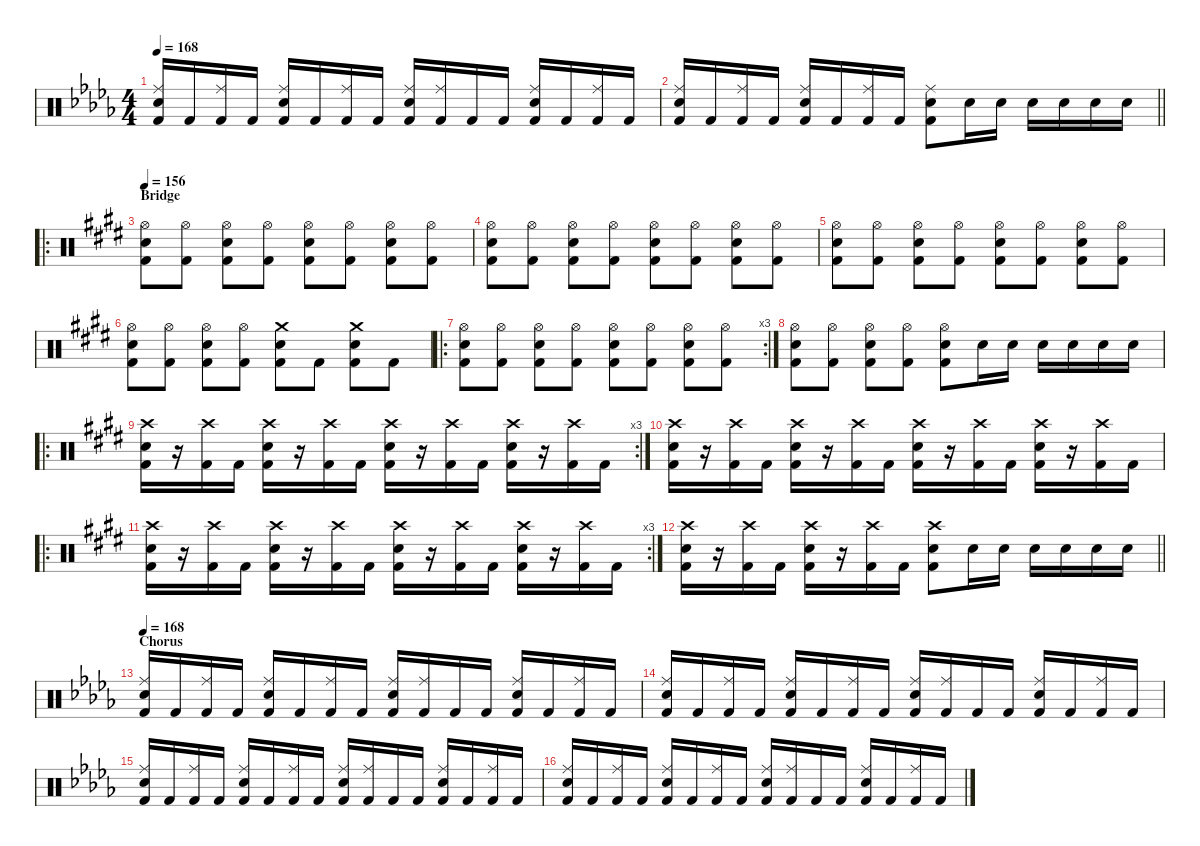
\defaultSystemsLayout 4
\hideDynamics
\bracketExtendMode nobrackets
\singleTrackTrackNamePolicy hidden
\multiTrackTrackNamePolicy hidden
\firstSystemTrackNameMode fullname
\firstSystemTrackNameOrientation horizontal
\otherSystemsTrackNameOrientation horizontal
\track ("Percussion" "drm.") {instrument percussion}
\staff {score}
\articulation defaults
\ts (4 4)
\tempo 168
\clef neutral
\ks db
("Ride (middle)"{acc forcenatural} "Snare (hit) 2"{acc forcenatural} "Kick (hit) 2"{acc forcenatural}).16{dy f beam Up} "Kick (hit) 2"{acc forcenatural}.16{beam Up} ("Ride (middle)"{acc forcenatural} "Kick (hit) 2"{acc forcenatural}).16{beam Up} "Kick (hit) 2"{acc forcenatural}.16{beam Up} ("Ride (middle)"{acc forcenatural} "Snare (hit) 2"{acc forcenatural} "Kick (hit) 2"{acc forcenatural}).16{beam Up} "Kick (hit) 2"{acc forcenatural}.16{beam Up} ("Ride (middle)"{acc forcenatural} "Kick (hit) 2"{acc forcenatural}).16{beam Up} "Kick (hit) 2"{acc forcenatural}.16{beam Up} ("Ride (middle)"{acc forcenatural} "Snare (hit) 2"{acc forcenatural} "Kick (hit) 2"{acc forcenatural}).16{beam Up} ("Ride (middle)"{acc forcenatural} "Kick (hit) 2"{acc forcenatural}).16{beam Up} "Kick (hit) 2"{acc forcenatural}.16{beam Up} "Kick (hit) 2"{acc forcenatural}.16{beam Up} ("Ride (middle)"{acc forcenatural} "Snare (hit) 2"{acc forcenatural} "Kick (hit) 2"{acc forcenatural}).16{beam Up} "Kick (hit) 2"{acc forcenatural}.16{beam Up} ("Ride (middle)"{acc forcenatural} "Kick (hit) 2"{acc forcenatural}).16{beam Up} "Kick (hit) 2"{acc forcenatural}.16{beam Up} |
\barLineRight lightlight
("Ride (middle)"{acc forcenatural} "Snare (hit) 2"{acc forcenatural} "Kick (hit) 2"{acc forcenatural}).16{beam Up} "Kick (hit) 2"{acc forcenatural}.16{beam Up} ("Ride (middle)"{acc forcenatural} "Kick (hit) 2"{acc forcenatural}).16{beam Up} "Kick (hit) 2"{acc forcenatural}.16{beam Up} ("Ride (middle)"{acc forcenatural} "Snare (hit) 2"{acc forcenatural} "Kick (hit) 2"{acc forcenatural}).16{beam Up} "Kick (hit) 2"{acc forcenatural}.16{beam Up} ("Ride (middle)"{acc forcenatural} "Kick (hit) 2"{acc forcenatural}).16{beam Up} "Kick (hit) 2"{acc forcenatural}.16{beam Up} ("Ride (middle)"{acc forcenatural} "Snare (hit) 2"{acc forcenatural} "Kick (hit) 2"{acc forcenatural}).8{beam Down} "Snare (hit) 2"{acc forcenatural}.16{beam Down} "Snare (hit) 2"{acc forcenatural}.16{beam Down} "Snare (hit) 2"{acc forcenatural}.16{beam Down} "Snare (hit) 2"{acc forcenatural}.16{beam Down} "Snare (hit) 2"{acc forcenatural}.16{beam Down} "Snare (hit) 2"{acc forcenatural}.16{beam Down} |
\ro
\section ("" "Bridge")
\tempo 156
\ks c#minor
("Hi-Hat (open)"{acc forcenatural} "Snare (hit) 2"{acc forcenatural} "Kick (hit) 2"{acc forcenatural}).8{beam Down} ("Hi-Hat (open)"{acc forcenatural} "Kick (hit) 2"{acc forcenatural}).8{beam Down} ("Hi-Hat (open)"{acc forcenatural} "Snare (hit) 2"{acc forcenatural} "Kick (hit) 2"{acc forcenatural}).8{beam Down} ("Hi-Hat (open)"{acc forcenatural} "Kick (hit) 2"{acc forcenatural}).8{beam Down} ("Hi-Hat (open)"{acc forcenatural} "Snare (hit) 2"{acc forcenatural} "Kick (hit) 2"{acc forcenatural}).8{beam Down} ("Hi-Hat (open)"{acc forcenatural} "Kick (hit) 2"{acc forcenatural}).8{beam Down} ("Hi-Hat (open)"{acc forcenatural} "Snare (hit) 2"{acc forcenatural} "Kick (hit) 2"{acc forcenatural}).8{beam Down} ("Hi-Hat (open)"{acc forcenatural} "Kick (hit) 2"{acc forcenatural}).8{beam Down} |
("Hi-Hat (open)"{acc forcenatural} "Snare (hit) 2"{acc forcenatural} "Kick (hit) 2"{acc forcenatural}).8{beam Down} ("Hi-Hat (open)"{acc forcenatural} "Kick (hit) 2"{acc forcenatural}).8{beam Down} ("Hi-Hat (open)"{acc forcenatural} "Snare (hit) 2"{acc forcenatural} "Kick (hit) 2"{acc forcenatural}).8{beam Down} ("Hi-Hat (open)"{acc forcenatural} "Kick (hit) 2"{acc forcenatural}).8{beam Down} ("Hi-Hat (open)"{acc forcenatural} "Snare (hit) 2"{acc forcenatural} "Kick (hit) 2"{acc forcenatural}).8{beam Down} ("Hi-Hat (open)"{acc forcenatural} "Kick (hit) 2"{acc forcenatural}).8{beam Down} ("Hi-Hat (open)"{acc forcenatural} "Snare (hit) 2"{acc forcenatural} "Kick (hit) 2"{acc forcenatural}).8{beam Down} ("Hi-Hat (open)"{acc forcenatural} "Kick (hit) 2"{acc forcenatural}).8{beam Down} |
("Hi-Hat (open)"{acc forcenatural} "Snare (hit) 2"{acc forcenatural} "Kick (hit) 2"{acc forcenatural}).8{beam Down} ("Hi-Hat (open)"{acc forcenatural} "Kick (hit) 2"{acc forcenatural}).8{beam Down} ("Hi-Hat (open)"{acc forcenatural} "Snare (hit) 2"{acc forcenatural} "Kick (hit) 2"{acc forcenatural}).8{beam Down} ("Hi-Hat (open)"{acc forcenatural} "Kick (hit) 2"{acc forcenatural}).8{beam Down} ("Hi-Hat (open)"{acc forcenatural} "Snare (hit) 2"{acc forcenatural} "Kick (hit) 2"{acc forcenatural}).8{beam Down} ("Hi-Hat (open)"{acc forcenatural} "Kick (hit) 2"{acc forcenatural}).8{beam Down} ("Hi-Hat (open)"{acc forcenatural} "Snare (hit) 2"{acc forcenatural} "Kick (hit) 2"{acc forcenatural}).8{beam Down} ("Hi-Hat (open)"{acc forcenatural} "Kick (hit) 2"{acc forcenatural}).8{beam Down} |
("Hi-Hat (open)"{acc forcenatural} "Snare (hit) 2"{acc forcenatural} "Kick (hit) 2"{acc forcenatural}).8{beam Down} ("Hi-Hat (open)"{acc forcenatural} "Kick (hit) 2"{acc forcenatural}).8{beam Down} ("Hi-Hat (open)"{acc forcenatural} "Snare (hit) 2"{acc forcenatural} "Kick (hit) 2"{acc forcenatural}).8{beam Down} ("Hi-Hat (open)"{acc forcenatural} "Kick (hit) 2"{acc forcenatural}).8{beam Down} ("Crash medium (hit)"{acc forcenatural} "Snare (hit) 2"{acc forcenatural} "Kick (hit) 2"{acc forcenatural}).8{beam Down} "Kick (hit) 2"{acc forcenatural}.8{beam Down} ("Crash medium (hit)"{acc forcenatural} "Snare (hit) 2"{acc forcenatural} "Kick (hit) 2"{acc forcenatural}).8{beam Down} "Kick (hit) 2"{acc forcenatural}.8{beam Down} |
\ro
\rc 3
("Hi-Hat (open)"{acc forcenatural} "Snare (hit) 2"{acc forcenatural} "Kick (hit) 2"{acc forcenatural}).8{beam Down} ("Hi-Hat (open)"{acc forcenatural} "Kick (hit) 2"{acc forcenatural}).8{beam Down} ("Hi-Hat (open)"{acc forcenatural} "Snare (hit) 2"{acc forcenatural} "Kick (hit) 2"{acc forcenatural}).8{beam Down} ("Hi-Hat (open)"{acc forcenatural} "Kick (hit) 2"{acc forcenatural}).8{beam Down} ("Hi-Hat (open)"{acc forcenatural} "Snare (hit) 2"{acc forcenatural} "Kick (hit) 2"{acc forcenatural}).8{beam Down} ("Hi-Hat (open)"{acc forcenatural} "Kick (hit) 2"{acc forcenatural}).8{beam Down} ("Hi-Hat (open)"{acc forcenatural} "Snare (hit) 2"{acc forcenatural} "Kick (hit) 2"{acc forcenatural}).8{beam Down} ("Hi-Hat (open)"{acc forcenatural} "Kick (hit) 2"{acc forcenatural}).8{beam Down} |
("Hi-Hat (open)"{acc forcenatural} "Snare (hit) 2"{acc forcenatural} "Kick (hit) 2"{acc forcenatural}).8{beam Down} ("Hi-Hat (open)"{acc forcenatural} "Kick (hit) 2"{acc forcenatural}).8{beam Down} ("Hi-Hat (open)"{acc forcenatural} "Snare (hit) 2"{acc forcenatural} "Kick (hit) 2"{acc forcenatural}).8{beam Down} ("Hi-Hat (open)"{acc forcenatural} "Kick (hit) 2"{acc forcenatural}).8{beam Down} ("Hi-Hat (open)"{acc forcenatural} "Snare (hit) 2"{acc forcenatural} "Kick (hit) 2"{acc forcenatural}).8{beam Down} "Snare (hit) 2"{acc forcenatural}.16{beam Down} "Snare (hit) 2"{acc forcenatural}.16{beam Down} "Snare (hit) 2"{acc forcenatural}.16{beam Down} "Snare (hit) 2"{acc forcenatural}.16{beam Down} "Snare (hit) 2"{acc forcenatural}.16{beam Down} "Snare (hit) 2"{acc forcenatural}.16{beam Down} |
\ro
\rc 3
("Crash high (hit)"{acc forcenatural} "Snare (hit) 2"{acc forcenatural} "Kick (hit) 2"{acc forcenatural}).16{beam Down} r.16{beam Down} ("Crash high (hit)"{acc forcenatural} "Kick (hit) 2"{acc forcenatural}).16{beam Down} "Kick (hit) 2"{acc forcenatural}.16{beam Down} ("Crash high (hit)"{acc forcenatural} "Snare (hit) 2"{acc forcenatural} "Kick (hit) 2"{acc forcenatural}).16{beam Down} r.16{beam Down} ("Crash high (hit)"{acc forcenatural} "Kick (hit) 2"{acc forcenatural}).16{beam Down} "Kick (hit) 2"{acc forcenatural}.16{beam Down} ("Crash high (hit)"{acc forcenatural} "Snare (hit) 2"{acc forcenatural} "Kick (hit) 2"{acc forcenatural}).16{beam Down} r.16{beam Down} ("Crash high (hit)"{acc forcenatural} "Kick (hit) 2"{acc forcenatural}).16{beam Down} "Kick (hit) 2"{acc forcenatural}.16{beam Down} ("Crash high (hit)"{acc forcenatural} "Snare (hit) 2"{acc forcenatural} "Kick (hit) 2"{acc forcenatural}).16{beam Down} r.16{beam Down} ("Crash high (hit)"{acc forcenatural} "Kick (hit) 2"{acc forcenatural}).16{beam Down} "Kick (hit) 2"{acc forcenatural}.16{beam Down} |
("Crash high (hit)"{acc forcenatural} "Snare (hit) 2"{acc forcenatural} "Kick (hit) 2"{acc forcenatural}).16{beam Down} r.16{beam Down} ("Crash high (hit)"{acc forcenatural} "Kick (hit) 2"{acc forcenatural}).16{beam Down} "Kick (hit) 2"{acc forcenatural}.16{beam Down} ("Crash high (hit)"{acc forcenatural} "Snare (hit) 2"{acc forcenatural} "Kick (hit) 2"{acc forcenatural}).16{beam Down} r.16{beam Down} ("Crash high (hit)"{acc forcenatural} "Kick (hit) 2"{acc forcenatural}).16{beam Down} "Kick (hit) 2"{acc forcenatural}.16{beam Down} ("Crash high (hit)"{acc forcenatural} "Snare (hit) 2"{acc forcenatural} "Kick (hit) 2"{acc forcenatural}).16{beam Down} r.16{beam Down} ("Crash high (hit)"{acc forcenatural} "Kick (hit) 2"{acc forcenatural}).16{beam Down} "Kick (hit) 2"{acc forcenatural}.16{beam Down} ("Crash high (hit)"{acc forcenatural} "Snare (hit) 2"{acc forcenatural} "Kick (hit) 2"{acc forcenatural}).16{beam Down} r.16{beam Down} ("Crash high (hit)"{acc forcenatural} "Kick (hit) 2"{acc forcenatural}).16{beam Down} "Kick (hit) 2"{acc forcenatural}.16{beam Down} |
\ro
\rc 3
("Crash high (hit)"{acc forcenatural} "Snare (hit) 2"{acc forcenatural} "Kick (hit) 2"{acc forcenatural}).16{beam Down} r.16{beam Down} ("Crash high (hit)"{acc forcenatural} "Kick (hit) 2"{acc forcenatural}).16{beam Down} "Kick (hit) 2"{acc forcenatural}.16{beam Down} ("Crash high (hit)"{acc forcenatural} "Snare (hit) 2"{acc forcenatural} "Kick (hit) 2"{acc forcenatural}).16{beam Down} r.16{beam Down} ("Crash high (hit)"{acc forcenatural} "Kick (hit) 2"{acc forcenatural}).16{beam Down} "Kick (hit) 2"{acc forcenatural}.16{beam Down} ("Crash high (hit)"{acc forcenatural} "Snare (hit) 2"{acc forcenatural} "Kick (hit) 2"{acc forcenatural}).16{beam Down} r.16{beam Down} ("Crash high (hit)"{acc forcenatural} "Kick (hit) 2"{acc forcenatural}).16{beam Down} "Kick (hit) 2"{acc forcenatural}.16{beam Down} ("Crash high (hit)"{acc forcenatural} "Snare (hit) 2"{acc forcenatural} "Kick (hit) 2"{acc forcenatural}).16{beam Down} r.16{beam Down} ("Crash high (hit)"{acc forcenatural} "Kick (hit) 2"{acc forcenatural}).16{beam Down} "Kick (hit) 2"{acc forcenatural}.16{beam Down} |
\barLineRight lightlight
("Crash high (hit)"{acc forcenatural} "Snare (hit) 2"{acc forcenatural} "Kick (hit) 2"{acc forcenatural}).16{beam Down} r.16{beam Down} ("Crash high (hit)"{acc forcenatural} "Kick (hit) 2"{acc forcenatural}).16{beam Down} "Kick (hit) 2"{acc forcenatural}.16{beam Down} ("Crash high (hit)"{acc forcenatural} "Snare (hit) 2"{acc forcenatural} "Kick (hit) 2"{acc forcenatural}).16{beam Down} r.16{beam Down} ("Crash high (hit)"{acc forcenatural} "Kick (hit) 2"{acc forcenatural}).16{beam Down} "Kick (hit) 2"{acc forcenatural}.16{beam Down} ("Crash high (hit)"{acc forcenatural} "Snare (hit) 2"{acc forcenatural} "Kick (hit) 2"{acc forcenatural}).8{beam Down} "Snare (hit) 2"{acc forcenatural}.16{beam Down} "Snare (hit) 2"{acc forcenatural}.16{beam Down} "Snare (hit) 2"{acc forcenatural}.16{beam Down} "Snare (hit) 2"{acc forcenatural}.16{beam Down} "Snare (hit) 2"{acc forcenatural}.16{beam Down} "Snare (hit) 2"{acc forcenatural}.16{beam Down} |
\section ("" "Chorus")
\tempo 168
\ks db
("Ride (middle)"{acc forcenatural} "Snare (hit) 2"{acc forcenatural} "Kick (hit) 2"{acc forcenatural}).16{beam Up} "Kick (hit) 2"{acc forcenatural}.16{beam Up} ("Ride (middle)"{acc forcenatural} "Kick (hit) 2"{acc forcenatural}).16{beam Up} "Kick (hit) 2"{acc forcenatural}.16{beam Up} ("Ride (middle)"{acc forcenatural} "Snare (hit) 2"{acc forcenatural} "Kick (hit) 2"{acc forcenatural}).16{beam Up} "Kick (hit) 2"{acc forcenatural}.16{beam Up} ("Ride (middle)"{acc forcenatural} "Kick (hit) 2"{acc forcenatural}).16{beam Up} "Kick (hit) 2"{acc forcenatural}.16{beam Up} ("Ride (middle)"{acc forcenatural} "Snare (hit) 2"{acc forcenatural} "Kick (hit) 2"{acc forcenatural}).16{beam Up} ("Ride (middle)"{acc forcenatural} "Kick (hit) 2"{acc forcenatural}).16{beam Up} "Kick (hit) 2"{acc forcenatural}.16{beam Up} "Kick (hit) 2"{acc forcenatural}.16{beam Up} ("Ride (middle)"{acc forcenatural} "Snare (hit) 2"{acc forcenatural} "Kick (hit) 2"{acc forcenatural}).16{beam Up} "Kick (hit) 2"{acc forcenatural}.16{beam Up} ("Ride (middle)"{acc forcenatural} "Kick (hit) 2"{acc forcenatural}).16{beam Up} "Kick (hit) 2"{acc forcenatural}.16{beam Up} |
("Ride (middle)"{acc forcenatural} "Snare (hit) 2"{acc forcenatural} "Kick (hit) 2"{acc forcenatural}).16{beam Up} "Kick (hit) 2"{acc forcenatural}.16{beam Up} ("Ride (middle)"{acc forcenatural} "Kick (hit) 2"{acc forcenatural}).16{beam Up} "Kick (hit) 2"{acc forcenatural}.16{beam Up} ("Ride (middle)"{acc forcenatural} "Snare (hit) 2"{acc forcenatural} "Kick (hit) 2"{acc forcenatural}).16{beam Up} "Kick (hit) 2"{acc forcenatural}.16{beam Up} ("Ride (middle)"{acc forcenatural} "Kick (hit) 2"{acc forcenatural}).16{beam Up} "Kick (hit) 2"{acc forcenatural}.16{beam Up} ("Ride (middle)"{acc forcenatural} "Snare (hit) 2"{acc forcenatural} "Kick (hit) 2"{acc forcenatural}).16{beam Up} ("Ride (middle)"{acc forcenatural} "Kick (hit) 2"{acc forcenatural}).16{beam Up} "Kick (hit) 2"{acc forcenatural}.16{beam Up} "Kick (hit) 2"{acc forcenatural}.16{beam Up} ("Ride (middle)"{acc forcenatural} "Snare (hit) 2"{acc forcenatural} "Kick (hit) 2"{acc forcenatural}).16{beam Up} "Kick (hit) 2"{acc forcenatural}.16{beam Up} ("Ride (middle)"{acc forcenatural} "Kick (hit) 2"{acc forcenatural}).16{beam Up} "Kick (hit) 2"{acc forcenatural}.16{beam Up} |
("Ride (middle)"{acc forcenatural} "Snare (hit) 2"{acc forcenatural} "Kick (hit) 2"{acc forcenatural}).16{beam Up} "Kick (hit) 2"{acc forcenatural}.16{beam Up} ("Ride (middle)"{acc forcenatural} "Kick (hit) 2"{acc forcenatural}).16{beam Up} "Kick (hit) 2"{acc forcenatural}.16{beam Up} ("Ride (middle)"{acc forcenatural} "Snare (hit) 2"{acc forcenatural} "Kick (hit) 2"{acc forcenatural}).16{beam Up} "Kick (hit) 2"{acc forcenatural}.16{beam Up} ("Ride (middle)"{acc forcenatural} "Kick (hit) 2"{acc forcenatural}).16{beam Up} "Kick (hit) 2"{acc forcenatural}.16{beam Up} ("Ride (middle)"{acc forcenatural} "Snare (hit) 2"{acc forcenatural} "Kick (hit) 2"{acc forcenatural}).16{beam Up} ("Ride (middle)"{acc forcenatural} "Kick (hit) 2"{acc forcenatural}).16{beam Up} "Kick (hit) 2"{acc forcenatural}.16{beam Up} "Kick (hit) 2"{acc forcenatural}.16{beam Up} ("Ride (middle)"{acc forcenatural} "Snare (hit) 2"{acc forcenatural} "Kick (hit) 2"{acc forcenatural}).16{beam Up} "Kick (hit) 2"{acc forcenatural}.16{beam Up} ("Ride (middle)"{acc forcenatural} "Kick (hit) 2"{acc forcenatural}).16{beam Up} "Kick (hit) 2"{acc forcenatural}.16{beam Up} |
("Ride (middle)"{acc forcenatural} "Snare (hit) 2"{acc forcenatural} "Kick (hit) 2"{acc forcenatural}).16{beam Up} "Kick (hit) 2"{acc forcenatural}.16{beam Up} ("Ride (middle)"{acc forcenatural} "Kick (hit) 2"{acc forcenatural}).16{beam Up} "Kick (hit) 2"{acc forcenatural}.16{beam Up} ("Ride (middle)"{acc forcenatural} "Snare (hit) 2"{acc forcenatural} "Kick (hit) 2"{acc forcenatural}).16{beam Up} "Kick (hit) 2"{acc forcenatural}.16{beam Up} ("Ride (middle)"{acc forcenatural} "Kick (hit) 2"{acc forcenatural}).16{beam Up} "Kick (hit) 2"{acc forcenatural}.16{beam Up} ("Ride (middle)"{acc forcenatural} "Snare (hit) 2"{acc forcenatural} "Kick (hit) 2"{acc forcenatural}).16{beam Up} ("Ride (middle)"{acc forcenatural} "Kick (hit) 2"{acc forcenatural}).16{beam Up} "Kick (hit) 2"{acc forcenatural}.16{beam Up} "Kick (hit) 2"{acc forcenatural}.16{beam Up} ("Ride (middle)"{acc forcenatural} "Snare (hit) 2"{acc forcenatural} "Kick (hit) 2"{acc forcenatural}).16{beam Up} "Kick (hit) 2"{acc forcenatural}.16{beam Up} ("Ride (middle)"{acc forcenatural} "Kick (hit) 2"{acc forcenatural}).16{beam Up} "Kick (hit) 2"{acc forcenatural}.16{beam Up}
